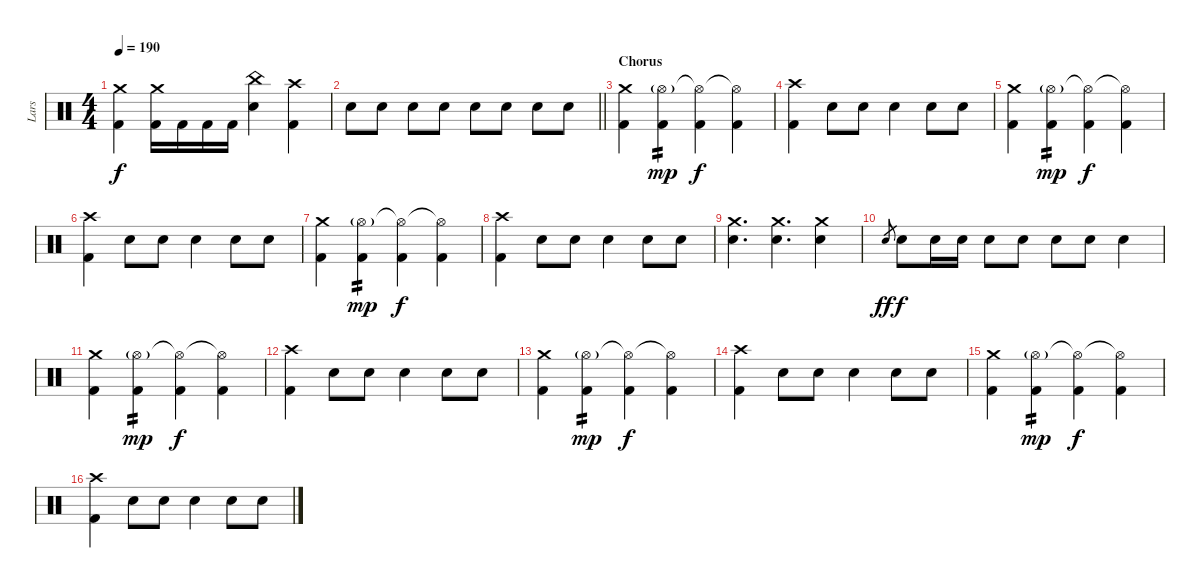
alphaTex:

\track ("Lars" "Lars") {instrument percussion}
\staff {score}
\articulation defaults
\ts (4 4)
\tempo 190
\clef neutral
\ks c
("Crash medium (hit)" "Kick (hit) 2").4{dy f} ("Crash medium (hit)" "Kick (hit) 2").16 "Kick (hit) 2".16 "Kick (hit) 2".16 "Kick (hit) 2".16 ("China (hit)" "Electric Snare (hit)").4 ("Crash high (hit)" "Kick (hit) 2").4 |
\barLineRight lightlight "Electric Snare (hit)".8 "Electric Snare (hit)".8 "Electric Snare (hit)".8 "Electric Snare (hit)".8 "Electric Snare (hit)".8 "Electric Snare (hit)".8 "Electric Snare (hit)".8 "Electric Snare (hit)".8
|
\section ("" "Chorus")
("Crash medium (hit)" "Kick (hit) 2").4 ("Hi-Hat (open)"{g} "Kick (hit) 2").4{tp 2 dy mp} ("Hi-Hat (open)"{t} "Kick (hit) 2").4{dy f} ("Hi-Hat (open)"{t} "Kick (hit) 2").4 |
("Crash high (hit)" "Kick (hit) 2").4 "Electric Snare (hit)".8 "Electric Snare (hit)".8 "Electric Snare (hit)".4 "Electric Snare (hit)".8 "Electric Snare (hit)".8 |
("Crash medium (hit)" "Kick (hit) 2").4 ("Hi-Hat (open)"{g} "Kick (hit) 2").4{tp 2 dy mp} ("Hi-Hat (open)"{t} "Kick (hit) 2").4{dy f} ("Hi-Hat (open)"{t} "Kick (hit) 2").4 |
("Crash high (hit)" "Kick (hit) 2").4 "Electric Snare (hit)".8 "Electric Snare (hit)".8 "Electric Snare (hit)".4 "Electric Snare (hit)".8 "Electric Snare (hit)".8 |
("Crash medium (hit)" "Kick (hit) 2").4 ("Hi-Hat (open)"{g} "Kick (hit) 2").4{tp 2 dy mp} ("Hi-Hat (open)"{t} "Kick (hit) 2").4{dy f} ("Hi-Hat (open)"{t} "Kick (hit) 2").4 |
("Crash high (hit)" "Kick (hit) 2").4 "Electric Snare (hit)".8 "Electric Snare (hit)".8 "Electric Snare (hit)".4 "Electric Snare (hit)".8 "Electric Snare (hit)".8 |
("Crash medium (hit)" "Electric Snare (hit)").4{d} ("Crash medium (hit)" "Electric Snare (hit)").4{d} ("Crash medium (hit)" "Electric Snare (hit)").4 |
"Electric Snare (hit)".8{gr dy ff} "Electric Snare (hit)".8{dy f} "Electric Snare (hit)".16 "Electric Snare (hit)".16 "Electric Snare (hit)".8 "Electric Snare (hit)".8 "Electric Snare (hit)".8 "Electric Snare (hit)".8 "Electric Snare (hit)".4 |
("Crash medium (hit)" "Kick (hit) 2").4 ("Hi-Hat (open)"{g} "Kick (hit) 2").4{tp 2 dy mp} ("Hi-Hat (open)"{t} "Kick (hit) 2").4{dy f} ("Hi-Hat (open)"{t} "Kick (hit) 2").4 |
("Crash high (hit)" "Kick (hit) 2").4 "Electric Snare (hit)".8 "Electric Snare (hit)".8 "Electric Snare (hit)".4 "Electric Snare (hit)".8 "Electric Snare (hit)".8 |
("Crash medium (hit)" "Kick (hit) 2").4 ("Hi-Hat (open)"{g} "Kick (hit) 2").4{tp 2 dy mp} ("Hi-Hat (open)"{t} "Kick (hit) 2").4{dy f} ("Hi-Hat (open)"{t} "Kick (hit) 2").4 |
("Crash high (hit)" "Kick (hit) 2").4 "Electric Snare (hit)".8 "Electric Snare (hit)".8 "Electric Snare (hit)".4 "Electric Snare (hit)".8 "Electric Snare (hit)".8 |
("Crash medium (hit)" "Kick (hit) 2").4 ("Hi-Hat (open)"{g} "Kick (hit) 2").4{tp 2 dy mp} ("Hi-Hat (open)"{t} "Kick (hit) 2").4{dy f} ("Hi-Hat (open)"{t} "Kick (hit) 2").4 |
("Crash high (hit)" "Kick (hit) 2").4 "Electric Snare (hit)".8 "Electric Snare (hit)".8 "Electric Snare (hit)".4 "Electric Snare (hit)".8 "Electric Snare (hit)".8
